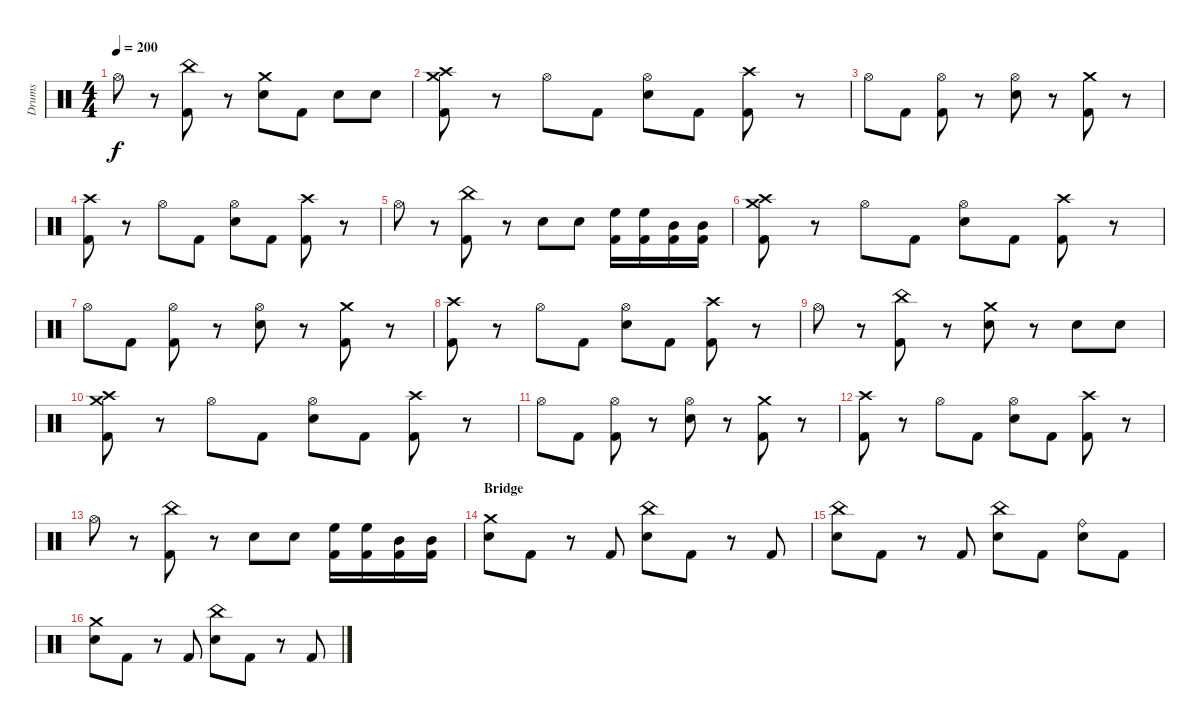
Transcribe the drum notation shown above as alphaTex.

\track ("Drums" "Drums") {instrument percussion}
\staff {score}
\articulation defaults
\ts (4 4)
\tempo 200
\clef neutral
\ks c "Hi-Hat (open)".8{dy f}
r.8 ("China (hit)" "Kick (hit) 2").8 r.8 ("Crash medium (hit)" "Electric Snare (hit)").8 "Kick (hit) 2".8 "Electric Snare (hit)".8 "Electric Snare (hit)".8 |
("Crash medium (hit)" "Crash high (hit)" "Kick (hit) 2").8 r.8 "Hi-Hat (open)".8 "Kick (hit) 2".8 ("Hi-Hat (open)" "Electric Snare (hit)").8 "Kick (hit) 2".8 ("Crash high (hit)" "Kick (hit) 2").8 r.8 |
"Hi-Hat (open)".8 "Kick (hit) 2".8 ("Hi-Hat (open)" "Kick (hit) 2").8 r.8 ("Hi-Hat (open)" "Electric Snare (hit)").8 r.8 ("Crash medium (hit)" "Kick (hit) 2").8 r.8 |
("Crash high (hit)" "Kick (hit) 2").8 r.8 "Hi-Hat (open)".8 "Kick (hit) 2".8 ("Hi-Hat (open)" "Electric Snare (hit)").8 "Kick (hit) 2".8 ("Crash high (hit)" "Kick (hit) 2").8 r.8 |
"Hi-Hat (open)".8 r.8 ("China (hit)" "Kick (hit) 2").8 r.8 "Electric Snare (hit)".8 "Electric Snare (hit)".8 ("High Floor Tom (hit)" "Kick (hit) 2").16 ("High Floor Tom (hit)" "Kick (hit) 2").16 ("Mid Tom (hit)" "Kick (hit) 2").16 ("Mid Tom (hit)" "Kick (hit) 2").16 |
("Crash medium (hit)" "Crash high (hit)" "Kick (hit) 2").8 r.8 "Hi-Hat (open)".8 "Kick (hit) 2".8 ("Hi-Hat (open)" "Electric Snare (hit)").8 "Kick (hit) 2".8 ("Crash high (hit)" "Kick (hit) 2").8 r.8 |
"Hi-Hat (open)".8 "Kick (hit) 2".8 ("Hi-Hat (open)" "Kick (hit) 2").8 r.8 ("Hi-Hat (open)" "Electric Snare (hit)").8 r.8 ("Crash medium (hit)" "Kick (hit) 2").8 r.8 |
("Crash high (hit)" "Kick (hit) 2").8 r.8 "Hi-Hat (open)".8 "Kick (hit) 2".8 ("Hi-Hat (open)" "Electric Snare (hit)").8 "Kick (hit) 2".8 ("Crash high (hit)" "Kick (hit) 2").8 r.8 |
"Hi-Hat (open)".8 r.8 ("China (hit)" "Kick (hit) 2").8 r.8 ("Crash medium (hit)" "Electric Snare (hit)").8 r.8 "Electric Snare (hit)".8 "Electric Snare (hit)".8 |
("Crash medium (hit)" "Crash high (hit)" "Kick (hit) 2").8 r.8 "Hi-Hat (open)".8 "Kick (hit) 2".8 ("Hi-Hat (open)" "Electric Snare (hit)").8 "Kick (hit) 2".8 ("Crash high (hit)" "Kick (hit) 2").8 r.8 |
"Hi-Hat (open)".8 "Kick (hit) 2".8 ("Hi-Hat (open)" "Kick (hit) 2").8 r.8 ("Hi-Hat (open)" "Electric Snare (hit)").8 r.8 ("Crash medium (hit)" "Kick (hit) 2").8 r.8 |
("Crash high (hit)" "Kick (hit) 2").8 r.8 "Hi-Hat (open)".8 "Kick (hit) 2".8 ("Hi-Hat (open)" "Electric Snare (hit)").8 "Kick (hit) 2".8 ("Crash high (hit)" "Kick (hit) 2").8 r.8 |
"Hi-Hat (open)".8 r.8 ("China (hit)" "Kick (hit) 2").8 r.8 "Electric Snare (hit)".8 "Electric Snare (hit)".8 ("High Floor Tom (hit)" "Kick (hit) 2").16 ("High Floor Tom (hit)" "Kick (hit) 2").16 ("Mid Tom (hit)" "Kick (hit) 2").16 ("Mid Tom (hit)" "Kick (hit) 2").16 |
\section ("" "Bridge")
("Crash medium (hit)" "Electric Snare (hit)").8 "Kick (hit) 2".8 r.8 "Kick (hit) 2".8 ("China (hit)" "Electric Snare (hit)").8 "Kick (hit) 2".8 r.8 "Kick (hit) 2".8 |
("China (hit)" "Electric Snare (hit)").8 "Kick (hit) 2".8 r.8 "Kick (hit) 2".8 ("China (hit)" "Electric Snare (hit)").8 "Kick (hit) 2".8 ("Ride (bell)" "Electric Snare (hit)").8 "Kick (hit) 2".8 |
("Crash medium (hit)" "Electric Snare (hit)").8 "Kick (hit) 2".8 r.8 "Kick (hit) 2".8 ("China (hit)" "Electric Snare (hit)").8 "Kick (hit) 2".8 r.8 "Kick (hit) 2".8
